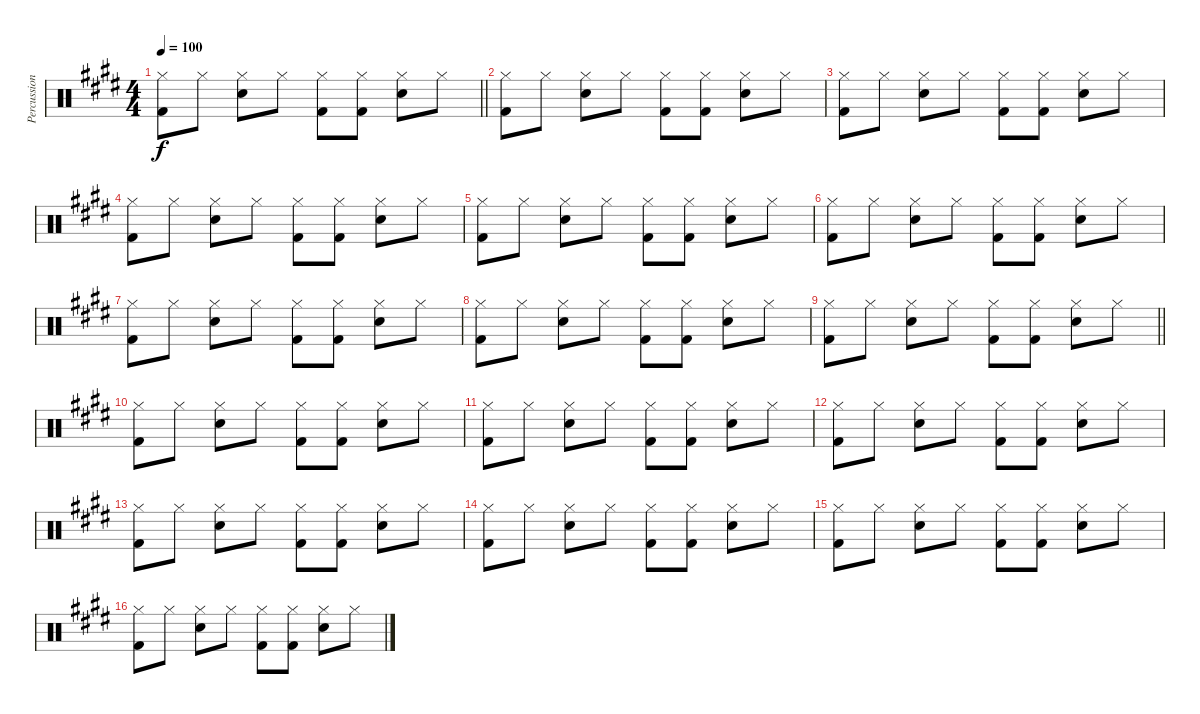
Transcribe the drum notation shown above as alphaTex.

\track ("Percussion" "Percussion") {instrument percussion}
\staff {score}
\articulation defaults
\ts (4 4)
\tempo 100
\clef neutral
\barLineRight lightlight
\ks e
("Hi-Hat (closed)" "Kick (hit) 2").8{dy f} "Hi-Hat (closed)".8 ("Hi-Hat (closed)" "Snare (hit) 2").8 "Hi-Hat (closed)".8 ("Hi-Hat (closed)" "Kick (hit) 2").8 ("Hi-Hat (closed)" "Kick (hit) 2").8 ("Hi-Hat (closed)" "Snare (hit) 2").8 "Hi-Hat (closed)".8 |
("Hi-Hat (closed)" "Kick (hit) 2").8 "Hi-Hat (closed)".8 ("Hi-Hat (closed)" "Snare (hit) 2").8 "Hi-Hat (closed)".8 ("Hi-Hat (closed)" "Kick (hit) 2").8 ("Hi-Hat (closed)" "Kick (hit) 2").8 ("Hi-Hat (closed)" "Snare (hit) 2").8 "Hi-Hat (closed)".8 |
("Hi-Hat (closed)" "Kick (hit) 2").8 "Hi-Hat (closed)".8 ("Hi-Hat (closed)" "Snare (hit) 2").8 "Hi-Hat (closed)".8 ("Hi-Hat (closed)" "Kick (hit) 2").8 ("Hi-Hat (closed)" "Kick (hit) 2").8 ("Hi-Hat (closed)" "Snare (hit) 2").8 "Hi-Hat (closed)".8 |
("Hi-Hat (closed)" "Kick (hit) 2").8 "Hi-Hat (closed)".8 ("Hi-Hat (closed)" "Snare (hit) 2").8 "Hi-Hat (closed)".8 ("Hi-Hat (closed)" "Kick (hit) 2").8 ("Hi-Hat (closed)" "Kick (hit) 2").8 ("Hi-Hat (closed)" "Snare (hit) 2").8 "Hi-Hat (closed)".8 |
("Hi-Hat (closed)" "Kick (hit) 2").8 "Hi-Hat (closed)".8 ("Hi-Hat (closed)" "Snare (hit) 2").8 "Hi-Hat (closed)".8 ("Hi-Hat (closed)" "Kick (hit) 2").8 ("Hi-Hat (closed)" "Kick (hit) 2").8 ("Hi-Hat (closed)" "Snare (hit) 2").8 "Hi-Hat (closed)".8 |
("Hi-Hat (closed)" "Kick (hit) 2").8 "Hi-Hat (closed)".8 ("Hi-Hat (closed)" "Snare (hit) 2").8 "Hi-Hat (closed)".8 ("Hi-Hat (closed)" "Kick (hit) 2").8 ("Hi-Hat (closed)" "Kick (hit) 2").8 ("Hi-Hat (closed)" "Snare (hit) 2").8 "Hi-Hat (closed)".8 |
("Hi-Hat (closed)" "Kick (hit) 2").8 "Hi-Hat (closed)".8 ("Hi-Hat (closed)" "Snare (hit) 2").8 "Hi-Hat (closed)".8 ("Hi-Hat (closed)" "Kick (hit) 2").8 ("Hi-Hat (closed)" "Kick (hit) 2").8 ("Hi-Hat (closed)" "Snare (hit) 2").8 "Hi-Hat (closed)".8 |
("Hi-Hat (closed)" "Kick (hit) 2").8 "Hi-Hat (closed)".8 ("Hi-Hat (closed)" "Snare (hit) 2").8 "Hi-Hat (closed)".8 ("Hi-Hat (closed)" "Kick (hit) 2").8 ("Hi-Hat (closed)" "Kick (hit) 2").8 ("Hi-Hat (closed)" "Snare (hit) 2").8 "Hi-Hat (closed)".8 |
\barLineRight lightlight
("Hi-Hat (closed)" "Kick (hit) 2").8 "Hi-Hat (closed)".8 ("Hi-Hat (closed)" "Snare (hit) 2").8 "Hi-Hat (closed)".8 ("Hi-Hat (closed)" "Kick (hit) 2").8 ("Hi-Hat (closed)" "Kick (hit) 2").8 ("Hi-Hat (closed)" "Snare (hit) 2").8 "Hi-Hat (closed)".8 |
("Hi-Hat (closed)" "Kick (hit) 2").8 "Hi-Hat (closed)".8 ("Hi-Hat (closed)" "Snare (hit) 2").8 "Hi-Hat (closed)".8 ("Hi-Hat (closed)" "Kick (hit) 2").8 ("Hi-Hat (closed)" "Kick (hit) 2").8 ("Hi-Hat (closed)" "Snare (hit) 2").8 "Hi-Hat (closed)".8 |
("Hi-Hat (closed)" "Kick (hit) 2").8 "Hi-Hat (closed)".8 ("Hi-Hat (closed)" "Snare (hit) 2").8 "Hi-Hat (closed)".8 ("Hi-Hat (closed)" "Kick (hit) 2").8 ("Hi-Hat (closed)" "Kick (hit) 2").8 ("Hi-Hat (closed)" "Snare (hit) 2").8 "Hi-Hat (closed)".8 |
("Hi-Hat (closed)" "Kick (hit) 2").8 "Hi-Hat (closed)".8 ("Hi-Hat (closed)" "Snare (hit) 2").8 "Hi-Hat (closed)".8 ("Hi-Hat (closed)" "Kick (hit) 2").8 ("Hi-Hat (closed)" "Kick (hit) 2").8 ("Hi-Hat (closed)" "Snare (hit) 2").8 "Hi-Hat (closed)".8 |
("Hi-Hat (closed)" "Kick (hit) 2").8 "Hi-Hat (closed)".8 ("Hi-Hat (closed)" "Snare (hit) 2").8 "Hi-Hat (closed)".8 ("Hi-Hat (closed)" "Kick (hit) 2").8 ("Hi-Hat (closed)" "Kick (hit) 2").8 ("Hi-Hat (closed)" "Snare (hit) 2").8 "Hi-Hat (closed)".8 |
("Hi-Hat (closed)" "Kick (hit) 2").8 "Hi-Hat (closed)".8 ("Hi-Hat (closed)" "Snare (hit) 2").8 "Hi-Hat (closed)".8 ("Hi-Hat (closed)" "Kick (hit) 2").8 ("Hi-Hat (closed)" "Kick (hit) 2").8 ("Hi-Hat (closed)" "Snare (hit) 2").8 "Hi-Hat (closed)".8 |
("Hi-Hat (closed)" "Kick (hit) 2").8 "Hi-Hat (closed)".8 ("Hi-Hat (closed)" "Snare (hit) 2").8 "Hi-Hat (closed)".8 ("Hi-Hat (closed)" "Kick (hit) 2").8 ("Hi-Hat (closed)" "Kick (hit) 2").8 ("Hi-Hat (closed)" "Snare (hit) 2").8 "Hi-Hat (closed)".8 |
("Hi-Hat (closed)" "Kick (hit) 2").8 "Hi-Hat (closed)".8 ("Hi-Hat (closed)" "Snare (hit) 2").8 "Hi-Hat (closed)".8 ("Hi-Hat (closed)" "Kick (hit) 2").8 ("Hi-Hat (closed)" "Kick (hit) 2").8 ("Hi-Hat (closed)" "Snare (hit) 2").8 "Hi-Hat (closed)".8
